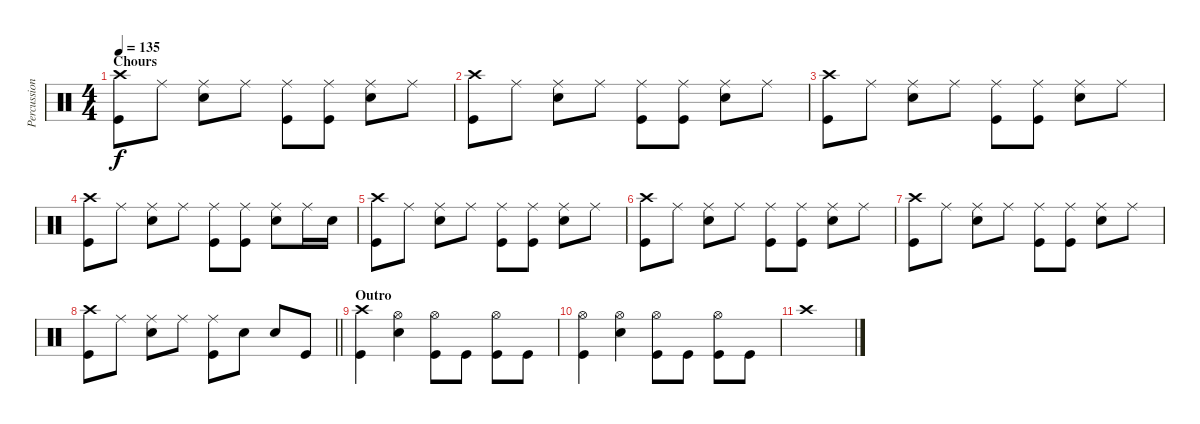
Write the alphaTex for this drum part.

\track ("Percussion" "Percussion") {instrument percussion}
\staff {score}
\articulation defaults
\ts (4 4)
\section ("" "Chours")
\tempo 135
\clef neutral
\ks c
("Kick (hit)" "Crash high (hit)").8{dy f} "Ride (middle)".8 ("Ride (middle)" "Snare (hit) 2").8 "Ride (middle)".8 ("Ride (middle)" "Kick (hit)").8 ("Ride (middle)" "Kick (hit)").8 ("Ride (middle)" "Snare (hit) 2").8 "Ride (middle)".8 |
("Kick (hit)" "Crash high (hit)").8 "Ride (middle)".8 ("Ride (middle)" "Snare (hit) 2").8 "Ride (middle)".8 ("Ride (middle)" "Kick (hit)").8 ("Ride (middle)" "Kick (hit)").8 ("Ride (middle)" "Snare (hit) 2").8 "Ride (middle)".8 |
("Kick (hit)" "Crash high (hit)").8 "Ride (middle)".8 ("Ride (middle)" "Snare (hit) 2").8 "Ride (middle)".8 ("Ride (middle)" "Kick (hit)").8 ("Ride (middle)" "Kick (hit)").8 ("Ride (middle)" "Snare (hit) 2").8 "Ride (middle)".8 |
("Kick (hit)" "Crash high (hit)").8 "Ride (middle)".8 ("Ride (middle)" "Snare (hit) 2").8 "Ride (middle)".8 ("Ride (middle)" "Kick (hit)").8 ("Ride (middle)" "Kick (hit)").8 ("Ride (middle)" "Snare (hit) 2").8 "Ride (middle)".16 "Snare (hit) 2".16 |
("Kick (hit)" "Crash high (hit)").8 "Ride (middle)".8 ("Ride (middle)" "Snare (hit) 2").8 "Ride (middle)".8 ("Ride (middle)" "Kick (hit)").8 ("Ride (middle)" "Kick (hit)").8 ("Ride (middle)" "Snare (hit) 2").8 "Ride (middle)".8 |
("Kick (hit)" "Crash high (hit)").8 "Ride (middle)".8 ("Ride (middle)" "Snare (hit) 2").8 "Ride (middle)".8 ("Ride (middle)" "Kick (hit)").8 ("Ride (middle)" "Kick (hit)").8 ("Ride (middle)" "Snare (hit) 2").8 "Ride (middle)".8 |
("Kick (hit)" "Crash high (hit)").8 "Ride (middle)".8 ("Ride (middle)" "Snare (hit) 2").8 "Ride (middle)".8 ("Ride (middle)" "Kick (hit)").8 ("Ride (middle)" "Kick (hit)").8 ("Ride (middle)" "Snare (hit) 2").8 "Ride (middle)".8 |
\barLineRight lightlight
("Crash high (hit)" "Kick (hit)").8 "Ride (middle)".8 ("Ride (middle)" "Snare (hit) 2").8 "Ride (middle)".8 ("Ride (middle)" "Kick (hit)").8 "Snare (hit) 2".8 "Snare (hit) 2".8 "Kick (hit)".8 |
\section ("" "Outro")
("Crash high (hit)" "Kick (hit)").4 ("Snare (hit) 2" "Hi-Hat (open)").4 ("Kick (hit)" "Hi-Hat (open)").8 "Kick (hit)".8 ("Kick (hit)" "Hi-Hat (open)").8 "Kick (hit)".8 |
("Kick (hit)" "Hi-Hat (open)").4 ("Snare (hit) 2" "Hi-Hat (open)").4 ("Kick (hit)" "Hi-Hat (open)").8 "Kick (hit)".8 ("Kick (hit)" "Hi-Hat (open)").8 "Kick (hit)".8 |
"Crash high (hit)".1
